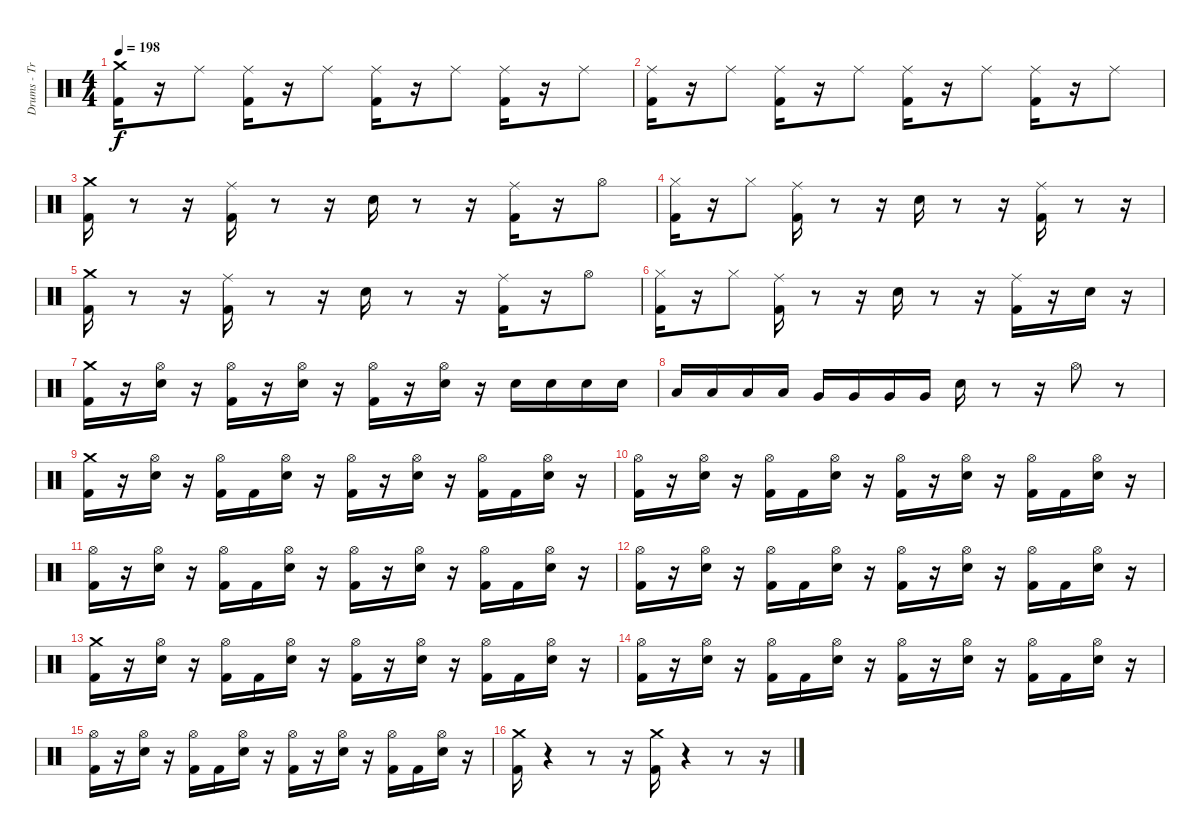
\track ("Drums - Travis" "Drums - Tr") {instrument percussion}
\staff {score}
\articulation defaults
\ts (4 4)
\tempo 198
\clef neutral
\ks c
("Kick (hit) 2" "Crash medium (hit)").16{dy f} r.16 "Ride (middle)".8 ("Kick (hit) 2" "Ride (middle)").16 r.16 "Ride (middle)".8 ("Kick (hit) 2" "Ride (middle)").16 r.16 "Ride (middle)".8 ("Kick (hit) 2" "Ride (middle)").16 r.16 "Ride (middle)".8 |
("Kick (hit) 2" "Ride (middle)").16 r.16 "Ride (middle)".8 ("Kick (hit) 2" "Ride (middle)").16 r.16 "Ride (middle)".8 ("Kick (hit) 2" "Ride (middle)").16 r.16 "Ride (middle)".8 ("Kick (hit) 2" "Ride (middle)").16 r.16 "Ride (middle)".8 |
("Crash medium (hit)" "Kick (hit) 2").16 r.8 r.16 ("Ride (middle)" "Kick (hit) 2").16 r.8 r.16 "Electric Snare (hit)".16 r.8 r.16 ("Ride (middle)" "Kick (hit) 2").16 r.16 "Hi-Hat (open)".8 |
("Kick (hit) 2" "Hi-Hat (closed)").16 r.16 "Hi-Hat (closed)".8 ("Ride (middle)" "Kick (hit) 2").16 r.8 r.16 "Electric Snare (hit)".16 r.8 r.16 ("Ride (middle)" "Kick (hit) 2").16 r.8 r.16 |
("Crash medium (hit)" "Kick (hit) 2").16 r.8 r.16 ("Ride (middle)" "Kick (hit) 2").16 r.8 r.16 "Electric Snare (hit)".16 r.8 r.16 ("Ride (middle)" "Kick (hit) 2").16 r.16 "Hi-Hat (open)".8 |
("Kick (hit) 2" "Hi-Hat (closed)").16 r.16 "Hi-Hat (closed)".8 ("Ride (middle)" "Kick (hit) 2").16 r.8 r.16 "Electric Snare (hit)".16 r.8 r.16 ("Ride (middle)" "Kick (hit) 2").16 r.16 "Electric Snare (hit)".16 r.16 |
("Kick (hit) 2" "Crash medium (hit)").16 r.16 ("Electric Snare (hit)" "Hi-Hat (open)").16 r.16 ("Kick (hit) 2" "Hi-Hat (open)").16 r.16 ("Electric Snare (hit)" "Hi-Hat (open)").16 r.16 ("Kick (hit) 2" "Hi-Hat (open)").16 r.16 ("Electric Snare (hit)" "Hi-Hat (open)").16 r.16 "Electric Snare (hit)".16 "Electric Snare (hit)".16 "Electric Snare (hit)".16 "Electric Snare (hit)".16 |
"Low Tom (hit)".16 "Low Tom (hit)".16 "Low Tom (hit)".16 "Low Tom (hit)".16 "Very Low Tom (hit)".16 "Very Low Tom (hit)".16 "Very Low Tom (hit)".16 "Very Low Tom (hit)".16 "Electric Snare (hit)".16 r.8 r.16 "Hi-Hat (open)".8 r.8 |
("Kick (hit) 2" "Crash medium (hit)").16 r.16 ("Electric Snare (hit)" "Hi-Hat (open)").16 r.16 ("Kick (hit) 2" "Hi-Hat (open)").16 "Kick (hit) 2".16 ("Electric Snare (hit)" "Hi-Hat (open)").16 r.16 ("Kick (hit) 2" "Hi-Hat (open)").16 r.16 ("Electric Snare (hit)" "Hi-Hat (open)").16 r.16 ("Kick (hit) 2" "Hi-Hat (open)").16 "Kick (hit) 2".16 ("Electric Snare (hit)" "Hi-Hat (open)").16 r.16 |
("Kick (hit) 2" "Hi-Hat (open)").16 r.16 ("Electric Snare (hit)" "Hi-Hat (open)").16 r.16 ("Kick (hit) 2" "Hi-Hat (open)").16 "Kick (hit) 2".16 ("Electric Snare (hit)" "Hi-Hat (open)").16 r.16 ("Kick (hit) 2" "Hi-Hat (open)").16 r.16 ("Electric Snare (hit)" "Hi-Hat (open)").16 r.16 ("Kick (hit) 2" "Hi-Hat (open)").16 "Kick (hit) 2".16 ("Electric Snare (hit)" "Hi-Hat (open)").16 r.16 |
("Kick (hit) 2" "Hi-Hat (open)").16 r.16 ("Electric Snare (hit)" "Hi-Hat (open)").16 r.16 ("Kick (hit) 2" "Hi-Hat (open)").16 "Kick (hit) 2".16 ("Electric Snare (hit)" "Hi-Hat (open)").16 r.16 ("Kick (hit) 2" "Hi-Hat (open)").16 r.16 ("Electric Snare (hit)" "Hi-Hat (open)").16 r.16 ("Kick (hit) 2" "Hi-Hat (open)").16 "Kick (hit) 2".16 ("Electric Snare (hit)" "Hi-Hat (open)").16 r.16 |
("Kick (hit) 2" "Hi-Hat (open)").16 r.16 ("Electric Snare (hit)" "Hi-Hat (open)").16 r.16 ("Kick (hit) 2" "Hi-Hat (open)").16 "Kick (hit) 2".16 ("Electric Snare (hit)" "Hi-Hat (open)").16 r.16 ("Kick (hit) 2" "Hi-Hat (open)").16 r.16 ("Electric Snare (hit)" "Hi-Hat (open)").16 r.16 ("Kick (hit) 2" "Hi-Hat (open)").16 "Kick (hit) 2".16 ("Electric Snare (hit)" "Hi-Hat (open)").16 r.16 |
("Kick (hit) 2" "Crash medium (hit)").16 r.16 ("Electric Snare (hit)" "Hi-Hat (open)").16 r.16 ("Kick (hit) 2" "Hi-Hat (open)").16 "Kick (hit) 2".16 ("Electric Snare (hit)" "Hi-Hat (open)").16 r.16 ("Kick (hit) 2" "Hi-Hat (open)").16 r.16 ("Electric Snare (hit)" "Hi-Hat (open)").16 r.16 ("Kick (hit) 2" "Hi-Hat (open)").16 "Kick (hit) 2".16 ("Electric Snare (hit)" "Hi-Hat (open)").16 r.16 |
("Kick (hit) 2" "Hi-Hat (open)").16 r.16 ("Electric Snare (hit)" "Hi-Hat (open)").16 r.16 ("Kick (hit) 2" "Hi-Hat (open)").16 "Kick (hit) 2".16 ("Electric Snare (hit)" "Hi-Hat (open)").16 r.16 ("Kick (hit) 2" "Hi-Hat (open)").16 r.16 ("Electric Snare (hit)" "Hi-Hat (open)").16 r.16 ("Kick (hit) 2" "Hi-Hat (open)").16 "Kick (hit) 2".16 ("Electric Snare (hit)" "Hi-Hat (open)").16 r.16 |
("Kick (hit) 2" "Hi-Hat (open)").16 r.16 ("Electric Snare (hit)" "Hi-Hat (open)").16 r.16 ("Kick (hit) 2" "Hi-Hat (open)").16 "Kick (hit) 2".16 ("Electric Snare (hit)" "Hi-Hat (open)").16 r.16 ("Kick (hit) 2" "Hi-Hat (open)").16 r.16 ("Electric Snare (hit)" "Hi-Hat (open)").16 r.16 ("Kick (hit) 2" "Hi-Hat (open)").16 "Kick (hit) 2".16 ("Electric Snare (hit)" "Hi-Hat (open)").16 r.16 |
("Kick (hit) 2" "Crash medium (hit)").16 r.4 r.8 r.16 ("Kick (hit) 2" "Crash medium (hit)").16 r.4 r.8 r.16
